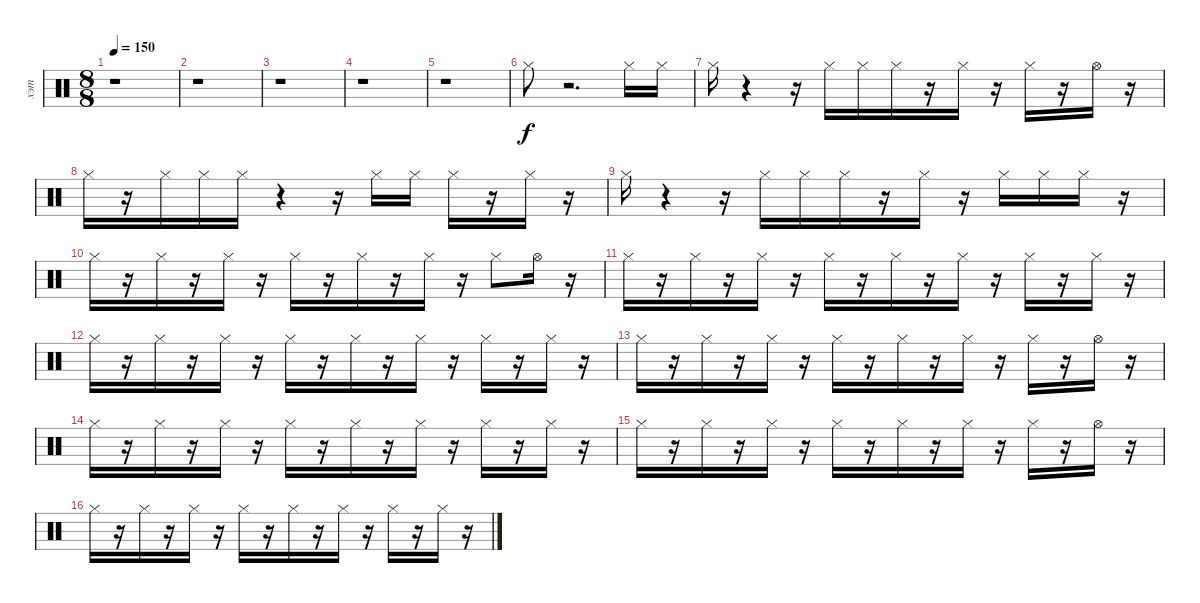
\track ("хэт" "хэт") {instrument percussion}
\staff {score}
\articulation defaults
\ts (8 8)
\tempo 150
\clef neutral
\ks c
r.1{dy f} |
r.1 |
r.1 |
r.1 |
r.1 |
"Hi-Hat (closed)".8 r.2{d} "Hi-Hat (closed)".16 "Hi-Hat (closed)".16 |
"Hi-Hat (closed)".16 r.4 r.16 "Hi-Hat (closed)".16 "Hi-Hat (closed)".16 "Hi-Hat (closed)".16 r.16 "Hi-Hat (closed)".16 r.16 "Hi-Hat (closed)".16 r.16 "Hi-Hat (open)".16 r.16 |
"Hi-Hat (closed)".16 r.16 "Hi-Hat (closed)".16 "Hi-Hat (closed)".16 "Hi-Hat (closed)".16 r.4 r.16 "Hi-Hat (closed)".16 "Hi-Hat (closed)".16 "Hi-Hat (closed)".16 r.16 "Hi-Hat (closed)".16 r.16 |
"Hi-Hat (closed)".16 r.4 r.16 "Hi-Hat (closed)".16 "Hi-Hat (closed)".16 "Hi-Hat (closed)".16 r.16 "Hi-Hat (closed)".16 r.16 "Hi-Hat (closed)".16 "Hi-Hat (closed)".16 "Hi-Hat (closed)".16 r.16 |
"Hi-Hat (closed)".16 r.16 "Hi-Hat (closed)".16 r.16 "Hi-Hat (closed)".16 r.16 "Hi-Hat (closed)".16 r.16 "Hi-Hat (closed)".16 r.16 "Hi-Hat (closed)".16 r.16 "Hi-Hat (closed)".8 "Hi-Hat (open)".16 r.16 |
"Hi-Hat (closed)".16 r.16 "Hi-Hat (closed)".16 r.16 "Hi-Hat (closed)".16 r.16 "Hi-Hat (closed)".16 r.16 "Hi-Hat (closed)".16 r.16 "Hi-Hat (closed)".16 r.16 "Hi-Hat (closed)".16 r.16 "Hi-Hat (closed)".16 r.16 |
"Hi-Hat (closed)".16 r.16 "Hi-Hat (closed)".16 r.16 "Hi-Hat (closed)".16 r.16 "Hi-Hat (closed)".16 r.16 "Hi-Hat (closed)".16 r.16 "Hi-Hat (closed)".16 r.16 "Hi-Hat (closed)".16 r.16 "Hi-Hat (closed)".16 r.16 |
"Hi-Hat (closed)".16 r.16 "Hi-Hat (closed)".16 r.16 "Hi-Hat (closed)".16 r.16 "Hi-Hat (closed)".16 r.16 "Hi-Hat (closed)".16 r.16 "Hi-Hat (closed)".16 r.16 "Hi-Hat (closed)".16 r.16 "Hi-Hat (open)".16 r.16 |
"Hi-Hat (closed)".16 r.16 "Hi-Hat (closed)".16 r.16 "Hi-Hat (closed)".16 r.16 "Hi-Hat (closed)".16 r.16 "Hi-Hat (closed)".16 r.16 "Hi-Hat (closed)".16 r.16 "Hi-Hat (closed)".16 r.16 "Hi-Hat (closed)".16 r.16 |
"Hi-Hat (closed)".16 r.16 "Hi-Hat (closed)".16 r.16 "Hi-Hat (closed)".16 r.16 "Hi-Hat (closed)".16 r.16 "Hi-Hat (closed)".16 r.16 "Hi-Hat (closed)".16 r.16 "Hi-Hat (closed)".16 r.16 "Hi-Hat (open)".16 r.16 |
"Hi-Hat (closed)".16 r.16 "Hi-Hat (closed)".16 r.16 "Hi-Hat (closed)".16 r.16 "Hi-Hat (closed)".16 r.16 "Hi-Hat (closed)".16 r.16 "Hi-Hat (closed)".16 r.16 "Hi-Hat (closed)".16 r.16 "Hi-Hat (closed)".16 r.16
